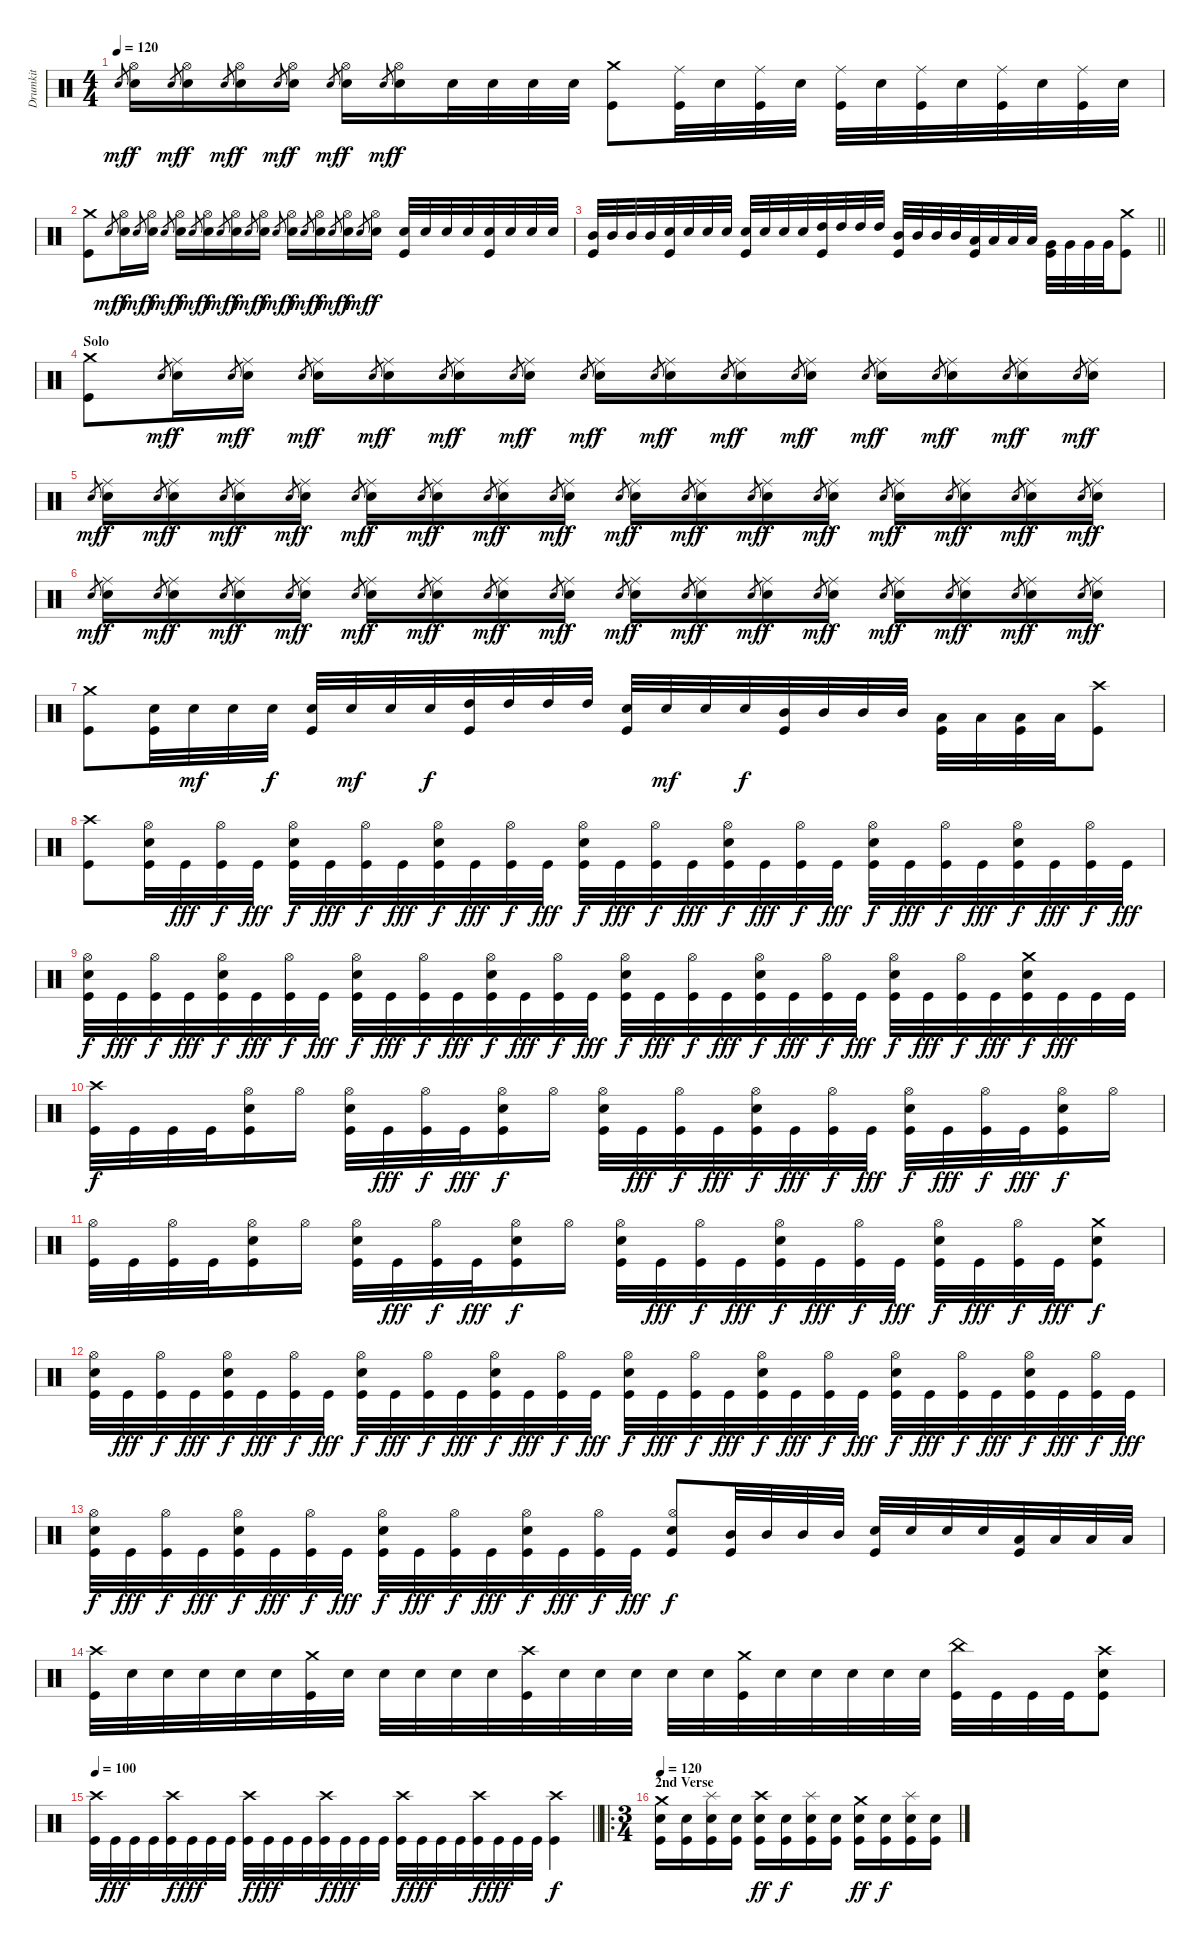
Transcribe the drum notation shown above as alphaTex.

\track ("Drumkit" "Drumkit") {instrument percussion}
\staff {score}
\articulation defaults
\ts (4 4)
\tempo 120
\clef neutral
\ks c "Snare (hit)".8{gr dy mf}
("Hi-Hat (open)" "Snare (hit) 2").16{dy f} "Snare (hit)".8{gr dy mf} ("Hi-Hat (open)" "Snare (hit) 2").16{dy f} "Snare (hit)".8{gr dy mf} ("Hi-Hat (open)" "Snare (hit) 2").16{dy f} "Snare (hit)".8{gr dy mf} ("Hi-Hat (open)" "Snare (hit) 2").16{dy f} "Snare (hit)".8{gr dy mf} ("Hi-Hat (open)" "Snare (hit) 2").16{dy f} "Snare (hit)".8{gr dy mf} ("Hi-Hat (open)" "Snare (hit) 2").16{dy f} "Snare (hit) 2".32 "Snare (hit) 2".32 "Snare (hit) 2".32 "Snare (hit) 2".32 ("Crash medium (hit)" "Kick (hit)").8 ("Ride (middle)" "Kick (hit)").32 "Snare (hit) 2".32 ("Ride (middle)" "Kick (hit)").32 "Snare (hit) 2".32 ("Ride (middle)" "Kick (hit)").32 "Snare (hit) 2".32 ("Ride (middle)" "Kick (hit)").32 "Snare (hit) 2".32 ("Ride (middle)" "Kick (hit)").32 "Snare (hit) 2".32 ("Ride (middle)" "Kick (hit)").32 "Snare (hit) 2".32 |
("Crash medium (hit)" "Kick (hit)").8 "Snare (hit)".8{gr dy mf} ("Hi-Hat (open)" "Snare (hit) 2").16{dy f} "Snare (hit)".8{gr dy mf} ("Hi-Hat (open)" "Snare (hit) 2").16{dy f} "Snare (hit)".8{gr dy mf} ("Hi-Hat (open)" "Snare (hit) 2").16{dy f} "Snare (hit)".8{gr dy mf} ("Hi-Hat (open)" "Snare (hit) 2").16{dy f} "Snare (hit)".8{gr dy mf} ("Hi-Hat (open)" "Snare (hit) 2").16{dy f} "Snare (hit)".8{gr dy mf} ("Hi-Hat (open)" "Snare (hit) 2").16{dy f} "Snare (hit)".8{gr dy mf} ("Hi-Hat (open)" "Snare (hit) 2").16{dy f} "Snare (hit)".8{gr dy mf} ("Hi-Hat (open)" "Snare (hit) 2").16{dy f} "Snare (hit)".8{gr dy mf} ("Hi-Hat (open)" "Snare (hit) 2").16{dy f} "Snare (hit)".8{gr dy mf} ("Hi-Hat (open)" "Snare (hit) 2").16{dy f} ("Snare (hit) 2" "Kick (hit)").32 "Snare (hit) 2".32 "Snare (hit) 2".32 "Snare (hit) 2".32 ("Snare (hit) 2" "Kick (hit)").32 "Snare (hit) 2".32 "Snare (hit) 2".32 "Snare (hit) 2".32 |
\barLineRight lightlight
("Mid Tom (hit)" "Kick (hit)").32 "Mid Tom (hit)".32 "Mid Tom (hit)".32 "Mid Tom (hit)".32 ("Snare (hit) 2" "Kick (hit)").32 "Snare (hit) 2".32 "Snare (hit) 2".32 "Snare (hit) 2".32 ("Snare (hit) 2" "Kick (hit)").32 "Snare (hit) 2".32 "Snare (hit) 2".32 "Snare (hit) 2".32 ("High Tom (hit)" "Kick (hit)").32 "High Tom (hit)".32 "High Tom (hit)".32 "High Tom (hit)".32 ("Mid Tom (hit)" "Kick (hit)").32 "Mid Tom (hit)".32 "Mid Tom (hit)".32 "Mid Tom (hit)".32 ("Low Tom (hit)" "Kick (hit)").32 "Low Tom (hit)".32 "Low Tom (hit)".32 "Low Tom (hit)".32 ("Very Low Tom (hit)" "Kick (hit)").32 "Very Low Tom (hit)".32 "Very Low Tom (hit)".32 "Very Low Tom (hit)".32 ("Crash medium (hit)" "Kick (hit)").8 |
\section ("" "Solo")
("Crash medium (hit)" "Kick (hit)").8 "Snare (hit)".8{gr dy mf} ("Ride (middle)" "Snare (hit) 2").16{dy f} "Snare (hit)".8{gr dy mf} ("Ride (middle)" "Snare (hit) 2").16{dy f} "Snare (hit)".8{gr dy mf} ("Ride (middle)" "Snare (hit) 2").16{dy f} "Snare (hit)".8{gr dy mf} ("Ride (middle)" "Snare (hit) 2").16{dy f} "Snare (hit)".8{gr dy mf} ("Ride (middle)" "Snare (hit) 2").16{dy f} "Snare (hit)".8{gr dy mf} ("Ride (middle)" "Snare (hit) 2").16{dy f} "Snare (hit)".8{gr dy mf} ("Ride (middle)" "Snare (hit) 2").16{dy f} "Snare (hit)".8{gr dy mf} ("Ride (middle)" "Snare (hit) 2").16{dy f} "Snare (hit)".8{gr dy mf} ("Ride (middle)" "Snare (hit) 2").16{dy f} "Snare (hit)".8{gr dy mf} ("Ride (middle)" "Snare (hit) 2").16{dy f} "Snare (hit)".8{gr dy mf} ("Ride (middle)" "Snare (hit) 2").16{dy f} "Snare (hit)".8{gr dy mf} ("Ride (middle)" "Snare (hit) 2").16{dy f} "Snare (hit)".8{gr dy mf} ("Ride (middle)" "Snare (hit) 2").16{dy f} "Snare (hit)".8{gr dy mf} ("Ride (middle)" "Snare (hit) 2").16{dy f} |
"Snare (hit)".8{gr dy mf} ("Ride (middle)" "Snare (hit) 2").16{dy f} "Snare (hit)".8{gr dy mf} ("Ride (middle)" "Snare (hit) 2").16{dy f} "Snare (hit)".8{gr dy mf} ("Ride (middle)" "Snare (hit) 2").16{dy f} "Snare (hit)".8{gr dy mf} ("Ride (middle)" "Snare (hit) 2").16{dy f} "Snare (hit)".8{gr dy mf} ("Ride (middle)" "Snare (hit) 2").16{dy f} "Snare (hit)".8{gr dy mf} ("Ride (middle)" "Snare (hit) 2").16{dy f} "Snare (hit)".8{gr dy mf} ("Ride (middle)" "Snare (hit) 2").16{dy f} "Snare (hit)".8{gr dy mf} ("Ride (middle)" "Snare (hit) 2").16{dy f} "Snare (hit)".8{gr dy mf} ("Ride (middle)" "Snare (hit) 2").16{dy f} "Snare (hit)".8{gr dy mf} ("Ride (middle)" "Snare (hit) 2").16{dy f} "Snare (hit)".8{gr dy mf} ("Ride (middle)" "Snare (hit) 2").16{dy f} "Snare (hit)".8{gr dy mf} ("Ride (middle)" "Snare (hit) 2").16{dy f} "Snare (hit)".8{gr dy mf} ("Ride (middle)" "Snare (hit) 2").16{dy f} "Snare (hit)".8{gr dy mf} ("Ride (middle)" "Snare (hit) 2").16{dy f} "Snare (hit)".8{gr dy mf} ("Ride (middle)" "Snare (hit) 2").16{dy f} "Snare (hit)".8{gr dy mf} ("Ride (middle)" "Snare (hit) 2").16{dy f} |
"Snare (hit)".8{gr dy mf} ("Ride (middle)" "Snare (hit) 2").16{dy f} "Snare (hit)".8{gr dy mf} ("Ride (middle)" "Snare (hit) 2").16{dy f} "Snare (hit)".8{gr dy mf} ("Ride (middle)" "Snare (hit) 2").16{dy f} "Snare (hit)".8{gr dy mf} ("Ride (middle)" "Snare (hit) 2").16{dy f} "Snare (hit)".8{gr dy mf} ("Ride (middle)" "Snare (hit) 2").16{dy f} "Snare (hit)".8{gr dy mf} ("Ride (middle)" "Snare (hit) 2").16{dy f} "Snare (hit)".8{gr dy mf} ("Ride (middle)" "Snare (hit) 2").16{dy f} "Snare (hit)".8{gr dy mf} ("Ride (middle)" "Snare (hit) 2").16{dy f} "Snare (hit)".8{gr dy mf} ("Ride (middle)" "Snare (hit) 2").16{dy f} "Snare (hit)".8{gr dy mf} ("Ride (middle)" "Snare (hit) 2").16{dy f} "Snare (hit)".8{gr dy mf} ("Ride (middle)" "Snare (hit) 2").16{dy f} "Snare (hit)".8{gr dy mf} ("Ride (middle)" "Snare (hit) 2").16{dy f} "Snare (hit)".8{gr dy mf} ("Ride (middle)" "Snare (hit) 2").16{dy f} "Snare (hit)".8{gr dy mf} ("Ride (middle)" "Snare (hit) 2").16{dy f} "Snare (hit)".8{gr dy mf} ("Ride (middle)" "Snare (hit) 2").16{dy f} "Snare (hit)".8{gr dy mf} ("Ride (middle)" "Snare (hit) 2").16{dy f} |
("Crash medium (hit)" "Kick (hit)").8 ("Snare (hit) 2" "Kick (hit)").32 "Snare (hit) 2".32{dy mf} "Snare (hit) 2".32 "Snare (hit) 2".32{dy f} ("Snare (hit) 2" "Kick (hit)").32 "Snare (hit) 2".32{dy mf} "Snare (hit) 2".32 "Snare (hit) 2".32{dy f} ("High Tom (hit)" "Kick (hit)").32 "High Tom (hit)".32 "High Tom (hit)".32 "High Tom (hit)".32 ("Snare (hit) 2" "Kick (hit)").32 "Snare (hit) 2".32{dy mf} "Snare (hit) 2".32 "Snare (hit) 2".32{dy f} ("Mid Tom (hit)" "Kick (hit)").32 "Mid Tom (hit)".32 "Mid Tom (hit)".32 "Mid Tom (hit)".32 ("Low Tom (hit)" "Kick (hit)").32 "Low Tom (hit)".32 ("Low Tom (hit)" "Kick (hit)").32 "Low Tom (hit)".32 ("Crash high (hit)" "Kick (hit)").8 |
("Crash high (hit)" "Kick (hit)").8 ("Hi-Hat (open)" "Snare (hit) 2" "Kick (hit)").32 "Kick (hit)".32{dy fff} ("Hi-Hat (open)" "Kick (hit)").32{dy f} "Kick (hit)".32{dy fff} ("Hi-Hat (open)" "Snare (hit) 2" "Kick (hit)").32{dy f} "Kick (hit)".32{dy fff} ("Hi-Hat (open)" "Kick (hit)").32{dy f} "Kick (hit)".32{dy fff} ("Hi-Hat (open)" "Snare (hit) 2" "Kick (hit)").32{dy f} "Kick (hit)".32{dy fff} ("Hi-Hat (open)" "Kick (hit)").32{dy f} "Kick (hit)".32{dy fff} ("Hi-Hat (open)" "Snare (hit) 2" "Kick (hit)").32{dy f} "Kick (hit)".32{dy fff} ("Hi-Hat (open)" "Kick (hit)").32{dy f} "Kick (hit)".32{dy fff} ("Hi-Hat (open)" "Snare (hit) 2" "Kick (hit)").32{dy f} "Kick (hit)".32{dy fff} ("Hi-Hat (open)" "Kick (hit)").32{dy f} "Kick (hit)".32{dy fff} ("Hi-Hat (open)" "Snare (hit) 2" "Kick (hit)").32{dy f} "Kick (hit)".32{dy fff} ("Hi-Hat (open)" "Kick (hit)").32{dy f} "Kick (hit)".32{dy fff} ("Hi-Hat (open)" "Snare (hit) 2" "Kick (hit)").32{dy f} "Kick (hit)".32{dy fff} ("Hi-Hat (open)" "Kick (hit)").32{dy f} "Kick (hit)".32{dy fff} |
("Hi-Hat (open)" "Snare (hit) 2" "Kick (hit)").32{dy f} "Kick (hit)".32{dy fff} ("Hi-Hat (open)" "Kick (hit)").32{dy f} "Kick (hit)".32{dy fff} ("Hi-Hat (open)" "Snare (hit) 2" "Kick (hit)").32{dy f} "Kick (hit)".32{dy fff} ("Hi-Hat (open)" "Kick (hit)").32{dy f} "Kick (hit)".32{dy fff} ("Hi-Hat (open)" "Snare (hit) 2" "Kick (hit)").32{dy f} "Kick (hit)".32{dy fff} ("Hi-Hat (open)" "Kick (hit)").32{dy f} "Kick (hit)".32{dy fff} ("Hi-Hat (open)" "Snare (hit) 2" "Kick (hit)").32{dy f} "Kick (hit)".32{dy fff} ("Hi-Hat (open)" "Kick (hit)").32{dy f} "Kick (hit)".32{dy fff} ("Hi-Hat (open)" "Snare (hit) 2" "Kick (hit)").32{dy f} "Kick (hit)".32{dy fff} ("Hi-Hat (open)" "Kick (hit)").32{dy f} "Kick (hit)".32{dy fff} ("Hi-Hat (open)" "Snare (hit) 2" "Kick (hit)").32{dy f} "Kick (hit)".32{dy fff} ("Hi-Hat (open)" "Kick (hit)").32{dy f} "Kick (hit)".32{dy fff} ("Hi-Hat (open)" "Snare (hit) 2" "Kick (hit)").32{dy f} "Kick (hit)".32{dy fff} ("Hi-Hat (open)" "Kick (hit)").32{dy f} "Kick (hit)".32{dy fff} ("Crash medium (hit)" "Snare (hit) 2" "Kick (hit)").32{dy f} "Kick (hit)".32{dy fff} "Kick (hit)".32 "Kick (hit)".32 |
("Crash high (hit)" "Kick (hit)").32{dy f} "Kick (hit)".32 "Kick (hit)".32 "Kick (hit)".32 ("Hi-Hat (open)" "Snare (hit) 2" "Kick (hit)").16 "Hi-Hat (open)".16 ("Hi-Hat (open)" "Snare (hit) 2" "Kick (hit)").32 "Kick (hit)".32{dy fff} ("Hi-Hat (open)" "Kick (hit)").32{dy f} "Kick (hit)".32{dy fff} ("Hi-Hat (open)" "Snare (hit) 2" "Kick (hit)").16{dy f} "Hi-Hat (open)".16 ("Hi-Hat (open)" "Snare (hit) 2" "Kick (hit)").32 "Kick (hit)".32{dy fff} ("Hi-Hat (open)" "Kick (hit)").32{dy f} "Kick (hit)".32{dy fff} ("Hi-Hat (open)" "Snare (hit) 2" "Kick (hit)").32{dy f} "Kick (hit)".32{dy fff} ("Hi-Hat (open)" "Kick (hit)").32{dy f} "Kick (hit)".32{dy fff} ("Hi-Hat (open)" "Snare (hit) 2" "Kick (hit)").32{dy f} "Kick (hit)".32{dy fff} ("Hi-Hat (open)" "Kick (hit)").32{dy f} "Kick (hit)".32{dy fff} ("Hi-Hat (open)" "Snare (hit) 2" "Kick (hit)").16{dy f} "Hi-Hat (open)".16 |
("Hi-Hat (open)" "Kick (hit)").32 "Kick (hit)".32 ("Hi-Hat (open)" "Kick (hit)").32 "Kick (hit)".32 ("Hi-Hat (open)" "Snare (hit) 2" "Kick (hit)").16 "Hi-Hat (open)".16 ("Hi-Hat (open)" "Snare (hit) 2" "Kick (hit)").32 "Kick (hit)".32{dy fff} ("Hi-Hat (open)" "Kick (hit)").32{dy f} "Kick (hit)".32{dy fff} ("Hi-Hat (open)" "Snare (hit) 2" "Kick (hit)").16{dy f} "Hi-Hat (open)".16 ("Hi-Hat (open)" "Snare (hit) 2" "Kick (hit)").32 "Kick (hit)".32{dy fff} ("Hi-Hat (open)" "Kick (hit)").32{dy f} "Kick (hit)".32{dy fff} ("Hi-Hat (open)" "Snare (hit) 2" "Kick (hit)").32{dy f} "Kick (hit)".32{dy fff} ("Hi-Hat (open)" "Kick (hit)").32{dy f} "Kick (hit)".32{dy fff} ("Hi-Hat (open)" "Snare (hit) 2" "Kick (hit)").32{dy f} "Kick (hit)".32{dy fff} ("Hi-Hat (open)" "Kick (hit)").32{dy f} "Kick (hit)".32{dy fff} ("Crash medium (hit)" "Snare (hit) 2" "Kick (hit)").8{dy f} |
("Hi-Hat (open)" "Snare (hit) 2" "Kick (hit)").32 "Kick (hit)".32{dy fff} ("Hi-Hat (open)" "Kick (hit)").32{dy f} "Kick (hit)".32{dy fff} ("Hi-Hat (open)" "Snare (hit) 2" "Kick (hit)").32{dy f} "Kick (hit)".32{dy fff} ("Hi-Hat (open)" "Kick (hit)").32{dy f} "Kick (hit)".32{dy fff} ("Hi-Hat (open)" "Snare (hit) 2" "Kick (hit)").32{dy f} "Kick (hit)".32{dy fff} ("Hi-Hat (open)" "Kick (hit)").32{dy f} "Kick (hit)".32{dy fff} ("Hi-Hat (open)" "Snare (hit) 2" "Kick (hit)").32{dy f} "Kick (hit)".32{dy fff} ("Hi-Hat (open)" "Kick (hit)").32{dy f} "Kick (hit)".32{dy fff} ("Hi-Hat (open)" "Snare (hit) 2" "Kick (hit)").32{dy f} "Kick (hit)".32{dy fff} ("Hi-Hat (open)" "Kick (hit)").32{dy f} "Kick (hit)".32{dy fff} ("Hi-Hat (open)" "Snare (hit) 2" "Kick (hit)").32{dy f} "Kick (hit)".32{dy fff} ("Hi-Hat (open)" "Kick (hit)").32{dy f} "Kick (hit)".32{dy fff} ("Hi-Hat (open)" "Snare (hit) 2" "Kick (hit)").32{dy f} "Kick (hit)".32{dy fff} ("Hi-Hat (open)" "Kick (hit)").32{dy f} "Kick (hit)".32{dy fff} ("Hi-Hat (open)" "Snare (hit) 2" "Kick (hit)").32{dy f} "Kick (hit)".32{dy fff} ("Hi-Hat (open)" "Kick (hit)").32{dy f} "Kick (hit)".32{dy fff} |
("Hi-Hat (open)" "Snare (hit) 2" "Kick (hit)").32{dy f} "Kick (hit)".32{dy fff} ("Hi-Hat (open)" "Kick (hit)").32{dy f} "Kick (hit)".32{dy fff} ("Hi-Hat (open)" "Snare (hit) 2" "Kick (hit)").32{dy f} "Kick (hit)".32{dy fff} ("Hi-Hat (open)" "Kick (hit)").32{dy f} "Kick (hit)".32{dy fff} ("Hi-Hat (open)" "Snare (hit) 2" "Kick (hit)").32{dy f} "Kick (hit)".32{dy fff} ("Hi-Hat (open)" "Kick (hit)").32{dy f} "Kick (hit)".32{dy fff} ("Hi-Hat (open)" "Snare (hit) 2" "Kick (hit)").32{dy f} "Kick (hit)".32{dy fff} ("Hi-Hat (open)" "Kick (hit)").32{dy f} "Kick (hit)".32{dy fff} ("Hi-Hat (open)" "Snare (hit) 2" "Kick (hit)").8{dy f} ("Mid Tom (hit)" "Kick (hit)").32 "Mid Tom (hit)".32 "Mid Tom (hit)".32 "Mid Tom (hit)".32 ("Snare (hit) 2" "Kick (hit)").32 "Snare (hit) 2".32 "Snare (hit) 2".32 "Snare (hit) 2".32 ("Low Tom (hit)" "Kick (hit)").32 "Low Tom (hit)".32 "Low Tom (hit)".32 "Low Tom (hit)".32 |
("Crash high (hit)" "Kick (hit)").32 "Snare (hit) 2".32 "Snare (hit) 2".32 "Snare (hit) 2".32 "Snare (hit) 2".32 "Snare (hit) 2".32 ("Crash medium (hit)" "Kick (hit)").32 "Snare (hit) 2".32 "Snare (hit) 2".32 "Snare (hit) 2".32 "Snare (hit) 2".32 "Snare (hit) 2".32 ("Crash high (hit)" "Kick (hit)").32 "Snare (hit) 2".32 "Snare (hit) 2".32 "Snare (hit) 2".32 "Snare (hit) 2".32 "Snare (hit) 2".32 ("Crash medium (hit)" "Kick (hit)").32 "Snare (hit) 2".32 "Snare (hit) 2".32 "Snare (hit) 2".32 "Snare (hit) 2".32 "Snare (hit) 2".32 ("China (hit)" "Kick (hit)").32 "Kick (hit)".32 "Kick (hit)".32 "Kick (hit)".32 ("Crash high (hit)" "Snare (hit) 2" "Kick (hit)").8 |
\tempo 100
\barLineRight lightlight
("Crash high (hit)" "Kick (hit)").32 "Kick (hit)".32{dy fff} "Kick (hit)".32 "Kick (hit)".32 ("Crash high (hit)" "Kick (hit)").32{dy f} "Kick (hit)".32{dy fff} "Kick (hit)".32 "Kick (hit)".32 ("Crash high (hit)" "Kick (hit)").32{dy f} "Kick (hit)".32{dy fff} "Kick (hit)".32 "Kick (hit)".32 ("Crash high (hit)" "Kick (hit)").32{dy f} "Kick (hit)".32{dy fff} "Kick (hit)".32 "Kick (hit)".32 ("Crash high (hit)" "Kick (hit)").32{dy f} "Kick (hit)".32{dy fff} "Kick (hit)".32 "Kick (hit)".32 ("Crash high (hit)" "Kick (hit)").32{dy f} "Kick (hit)".32{dy fff} "Kick (hit)".32 "Kick (hit)".32 ("Crash high (hit)" "Kick (hit)").4{dy f} |
\ro
\ts (3 4)
\section ("" "2nd Verse")
\tempo 120
("Crash medium (hit)" "Snare (hit) 2" "Kick (hit)").16 ("Snare (hit) 2" "Kick (hit)").16 ("Splash (hit)" "Snare (hit) 2" "Kick (hit)").16 ("Snare (hit) 2" "Kick (hit)").16 ("Crash high (hit)" "Snare (hit) 2" "Kick (hit)").16{dy ff} ("Snare (hit) 2" "Kick (hit)").16{dy f} ("Splash (hit)" "Snare (hit) 2" "Kick (hit)").16 ("Snare (hit) 2" "Kick (hit)").16 ("Crash medium (hit)" "Snare (hit) 2" "Kick (hit)").16{dy ff} ("Snare (hit) 2" "Kick (hit)").16{dy f} ("Splash (hit)" "Snare (hit) 2" "Kick (hit)").16 ("Snare (hit) 2" "Kick (hit)").16
